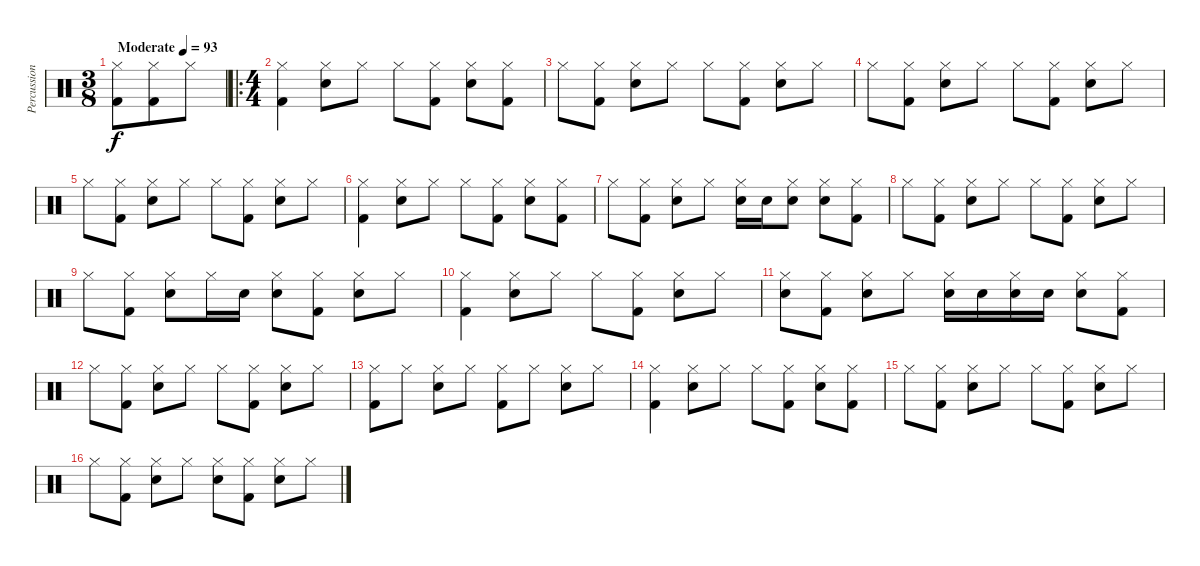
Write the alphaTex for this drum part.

\track ("Percussion" "Percussion") {instrument percussion}
\staff {score}
\articulation defaults
\ts (3 8)
\tempo (93 "Moderate")
\clef neutral
\ks c
("Hi-Hat (closed)" "Kick (hit) 2").8{dy f} ("Hi-Hat (closed)" "Kick (hit) 2").8 "Hi-Hat (closed)".8 |
\ro
\ts (4 4)
("Hi-Hat (closed)" "Kick (hit) 2").4 ("Hi-Hat (closed)" "Snare (hit) 2").8 "Hi-Hat (closed)".8 "Hi-Hat (closed)".8 ("Hi-Hat (closed)" "Kick (hit) 2").8 ("Hi-Hat (closed)" "Snare (hit) 2").8 ("Hi-Hat (closed)" "Kick (hit) 2").8 |
"Hi-Hat (closed)".8 ("Hi-Hat (closed)" "Kick (hit) 2").8 ("Hi-Hat (closed)" "Snare (hit) 2").8 "Hi-Hat (closed)".8 "Hi-Hat (closed)".8 ("Hi-Hat (closed)" "Kick (hit) 2").8 ("Hi-Hat (closed)" "Snare (hit) 2").8 "Hi-Hat (closed)".8 |
"Hi-Hat (closed)".8 ("Hi-Hat (closed)" "Kick (hit) 2").8 ("Hi-Hat (closed)" "Snare (hit) 2").8 "Hi-Hat (closed)".8 "Hi-Hat (closed)".8 ("Hi-Hat (closed)" "Kick (hit) 2").8 ("Hi-Hat (closed)" "Snare (hit) 2").8 "Hi-Hat (closed)".8 |
"Hi-Hat (closed)".8 ("Hi-Hat (closed)" "Kick (hit) 2").8 ("Hi-Hat (closed)" "Snare (hit) 2").8 "Hi-Hat (closed)".8 "Hi-Hat (closed)".8 ("Hi-Hat (closed)" "Kick (hit) 2").8 ("Hi-Hat (closed)" "Snare (hit) 2").8 "Hi-Hat (closed)".8 |
("Hi-Hat (closed)" "Kick (hit) 2").4 ("Hi-Hat (closed)" "Snare (hit) 2").8 "Hi-Hat (closed)".8 "Hi-Hat (closed)".8 ("Hi-Hat (closed)" "Kick (hit) 2").8 ("Hi-Hat (closed)" "Snare (hit) 2").8 ("Hi-Hat (closed)" "Kick (hit) 2").8 |
"Hi-Hat (closed)".8 ("Hi-Hat (closed)" "Kick (hit) 2").8 ("Hi-Hat (closed)" "Snare (hit) 2").8 "Hi-Hat (closed)".8 ("Hi-Hat (closed)" "Snare (hit) 2").16 "Snare (hit) 2".16 ("Hi-Hat (closed)" "Snare (hit) 2").8 ("Hi-Hat (closed)" "Snare (hit) 2").8 ("Hi-Hat (closed)" "Kick (hit) 2").8 |
"Hi-Hat (closed)".8 ("Hi-Hat (closed)" "Kick (hit) 2").8 ("Hi-Hat (closed)" "Snare (hit) 2").8 "Hi-Hat (closed)".8 "Hi-Hat (closed)".8 ("Hi-Hat (closed)" "Kick (hit) 2").8 ("Hi-Hat (closed)" "Snare (hit) 2").8 "Hi-Hat (closed)".8 |
"Hi-Hat (closed)".8 ("Hi-Hat (closed)" "Kick (hit) 2").8 ("Hi-Hat (closed)" "Snare (hit) 2").8 "Hi-Hat (closed)".16 "Snare (hit) 2".16 ("Hi-Hat (closed)" "Snare (hit) 2").8 ("Hi-Hat (closed)" "Kick (hit) 2").8 ("Hi-Hat (closed)" "Snare (hit) 2").8 "Hi-Hat (closed)".8 |
("Hi-Hat (closed)" "Kick (hit) 2").4 ("Hi-Hat (closed)" "Snare (hit) 2").8 "Hi-Hat (closed)".8 "Hi-Hat (closed)".8 ("Hi-Hat (closed)" "Kick (hit) 2").8 ("Hi-Hat (closed)" "Snare (hit) 2").8 "Hi-Hat (closed)".8 |
("Hi-Hat (closed)" "Snare (hit) 2").8 ("Hi-Hat (closed)" "Kick (hit) 2").8 ("Hi-Hat (closed)" "Snare (hit) 2").8 "Hi-Hat (closed)".8 ("Hi-Hat (closed)" "Snare (hit) 2").16 "Snare (hit) 2".16 ("Hi-Hat (closed)" "Snare (hit) 2").16 "Snare (hit) 2".16 ("Hi-Hat (closed)" "Snare (hit) 2").8 ("Hi-Hat (closed)" "Kick (hit) 2").8 |
"Hi-Hat (closed)".8 ("Hi-Hat (closed)" "Kick (hit) 2").8 ("Hi-Hat (closed)" "Snare (hit) 2").8 "Hi-Hat (closed)".8 "Hi-Hat (closed)".8 ("Hi-Hat (closed)" "Kick (hit) 2").8 ("Hi-Hat (closed)" "Snare (hit) 2").8 "Hi-Hat (closed)".8 |
("Hi-Hat (closed)" "Kick (hit) 2").8 "Hi-Hat (closed)".8 ("Hi-Hat (closed)" "Snare (hit) 2").8 "Hi-Hat (closed)".8 ("Hi-Hat (closed)" "Kick (hit) 2").8 "Hi-Hat (closed)".8 ("Hi-Hat (closed)" "Snare (hit) 2").8 "Hi-Hat (closed)".8 |
("Hi-Hat (closed)" "Kick (hit) 2").4 ("Hi-Hat (closed)" "Snare (hit) 2").8 "Hi-Hat (closed)".8 "Hi-Hat (closed)".8 ("Hi-Hat (closed)" "Kick (hit) 2").8 ("Hi-Hat (closed)" "Snare (hit) 2").8 ("Hi-Hat (closed)" "Kick (hit) 2").8 |
"Hi-Hat (closed)".8 ("Hi-Hat (closed)" "Kick (hit) 2").8 ("Hi-Hat (closed)" "Snare (hit) 2").8 "Hi-Hat (closed)".8 "Hi-Hat (closed)".8 ("Hi-Hat (closed)" "Kick (hit) 2").8 ("Hi-Hat (closed)" "Snare (hit) 2").8 "Hi-Hat (closed)".8 |
"Hi-Hat (closed)".8 ("Hi-Hat (closed)" "Kick (hit) 2").8 ("Hi-Hat (closed)" "Snare (hit) 2").8 "Hi-Hat (closed)".8 ("Hi-Hat (closed)" "Snare (hit) 2").8 ("Hi-Hat (closed)" "Kick (hit) 2").8 ("Hi-Hat (closed)" "Snare (hit) 2").8 "Hi-Hat (closed)".8
